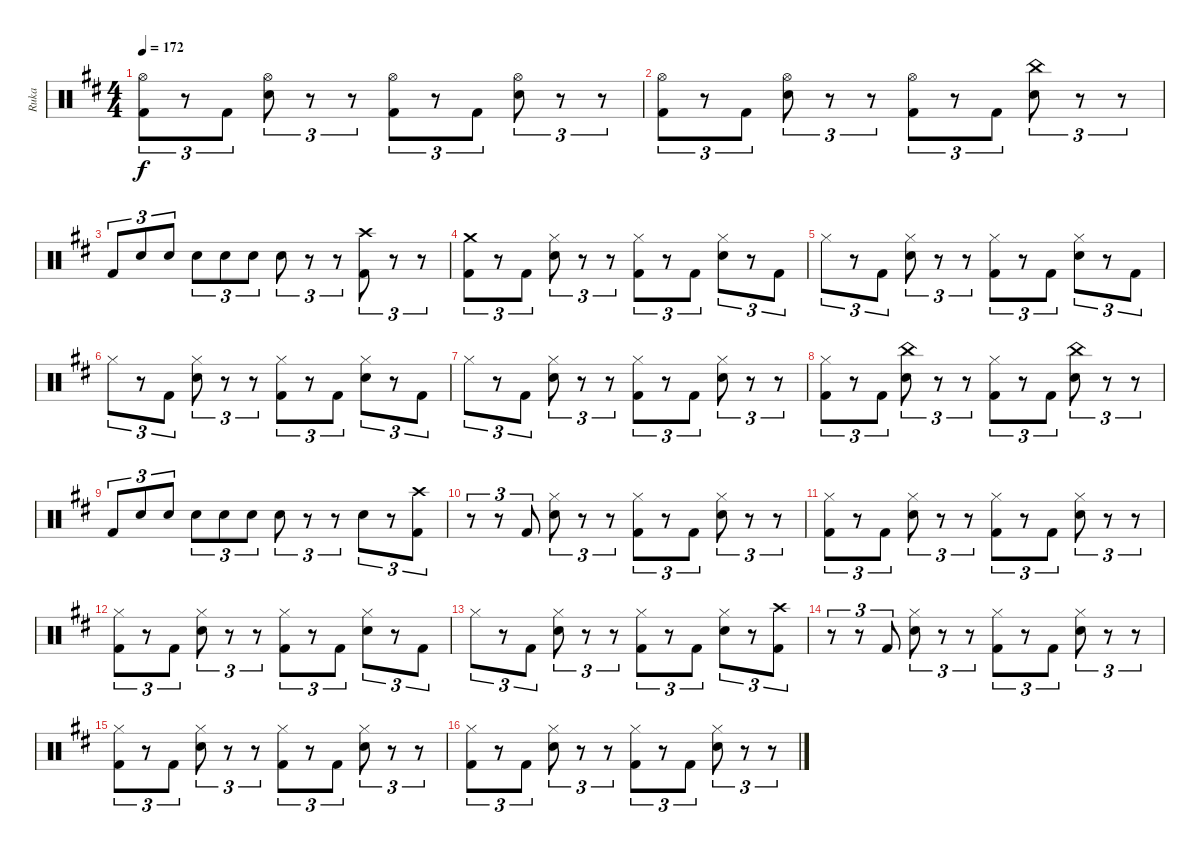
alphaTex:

\track ("Ruka" "Ruka") {instrument percussion}
\staff {score}
\articulation defaults
\ts (4 4)
\tempo 172
\clef neutral
\ks bminor
("Kick (hit) 2" "Hi-Hat (open)").8{tu (3 2) dy f} r.8{tu (3 2)} "Kick (hit) 2".8{tu (3 2)} ("Electric Snare (hit)" "Hi-Hat (open)").8{tu (3 2)} r.8{tu (3 2)} r.8{tu (3 2)} ("Kick (hit) 2" "Hi-Hat (open)").8{tu (3 2)} r.8{tu (3 2)} "Kick (hit) 2".8{tu (3 2)} ("Electric Snare (hit)" "Hi-Hat (open)").8{tu (3 2)} r.8{tu (3 2)} r.8{tu (3 2)} |
("Kick (hit) 2" "Hi-Hat (open)").8{tu (3 2)} r.8{tu (3 2)} "Kick (hit) 2".8{tu (3 2)} ("Electric Snare (hit)" "Hi-Hat (open)").8{tu (3 2)} r.8{tu (3 2)} r.8{tu (3 2)} ("Kick (hit) 2" "Hi-Hat (open)").8{tu (3 2)} r.8{tu (3 2)} "Kick (hit) 2".8{tu (3 2)} ("Electric Snare (hit)" "China (hit)").8{tu (3 2)} r.8{tu (3 2)} r.8{tu (3 2)} |
"Kick (hit) 2".8{tu (3 2)} "Electric Snare (hit)".8{tu (3 2)} "Electric Snare (hit)".8{tu (3 2)} "Electric Snare (hit)".8{tu (3 2)} "Electric Snare (hit)".8{tu (3 2)} "Electric Snare (hit)".8{tu (3 2)} "Electric Snare (hit)".8{tu (3 2)} r.8{tu (3 2)} r.8{tu (3 2)} ("Kick (hit) 2" "Crash high (hit)").8{tu (3 2)} r.8{tu (3 2)} r.8{tu (3 2)} |
("Kick (hit) 2" "Crash medium (hit)").8{tu (3 2)} r.8{tu (3 2)} "Kick (hit) 2".8{tu (3 2)} ("Electric Snare (hit)" "Hi-Hat (closed)").8{tu (3 2)} r.8{tu (3 2)} r.8{tu (3 2)} ("Kick (hit) 2" "Hi-Hat (closed)").8{tu (3 2)} r.8{tu (3 2)} "Kick (hit) 2".8{tu (3 2)} ("Electric Snare (hit)" "Hi-Hat (closed)").8{tu (3 2)} r.8{tu (3 2)} "Kick (hit) 2".8{tu (3 2)} |
"Hi-Hat (closed)".8{tu (3 2)} r.8{tu (3 2)} "Kick (hit) 2".8{tu (3 2)} ("Electric Snare (hit)" "Hi-Hat (closed)").8{tu (3 2)} r.8{tu (3 2)} r.8{tu (3 2)} ("Kick (hit) 2" "Hi-Hat (closed)").8{tu (3 2)} r.8{tu (3 2)} "Kick (hit) 2".8{tu (3 2)} ("Electric Snare (hit)" "Hi-Hat (closed)").8{tu (3 2)} r.8{tu (3 2)} "Kick (hit) 2".8{tu (3 2)} |
"Hi-Hat (closed)".8{tu (3 2)} r.8{tu (3 2)} "Kick (hit) 2".8{tu (3 2)} ("Electric Snare (hit)" "Hi-Hat (closed)").8{tu (3 2)} r.8{tu (3 2)} r.8{tu (3 2)} ("Kick (hit) 2" "Hi-Hat (closed)").8{tu (3 2)} r.8{tu (3 2)} "Kick (hit) 2".8{tu (3 2)} ("Electric Snare (hit)" "Hi-Hat (closed)").8{tu (3 2)} r.8{tu (3 2)} "Kick (hit) 2".8{tu (3 2)} |
"Hi-Hat (closed)".8{tu (3 2)} r.8{tu (3 2)} "Kick (hit) 2".8{tu (3 2)} ("Electric Snare (hit)" "Hi-Hat (closed)").8{tu (3 2)} r.8{tu (3 2)} r.8{tu (3 2)} ("Kick (hit) 2" "Hi-Hat (closed)").8{tu (3 2)} r.8{tu (3 2)} "Kick (hit) 2".8{tu (3 2)} ("Electric Snare (hit)" "Hi-Hat (closed)").8{tu (3 2)} r.8{tu (3 2)} r.8{tu (3 2)} |
("Kick (hit) 2" "Hi-Hat (closed)").8{tu (3 2)} r.8{tu (3 2)} "Kick (hit) 2".8{tu (3 2)} ("Electric Snare (hit)" "China (hit)").8{tu (3 2)} r.8{tu (3 2)} r.8{tu (3 2)} ("Kick (hit) 2" "Hi-Hat (closed)").8{tu (3 2)} r.8{tu (3 2)} "Kick (hit) 2".8{tu (3 2)} ("Electric Snare (hit)" "China (hit)").8{tu (3 2)} r.8{tu (3 2)} r.8{tu (3 2)} |
"Kick (hit) 2".8{tu (3 2)} "Electric Snare (hit)".8{tu (3 2)} "Electric Snare (hit)".8{tu (3 2)} "Electric Snare (hit)".8{tu (3 2)} "Electric Snare (hit)".8{tu (3 2)} "Electric Snare (hit)".8{tu (3 2)} "Electric Snare (hit)".8{tu (3 2)} r.8{tu (3 2)} r.8{tu (3 2)} "Electric Snare (hit)".8{tu (3 2)} r.8{tu (3 2)} ("Kick (hit) 2" "Crash high (hit)").8{tu (3 2)} |
r.8{tu (3 2)} r.8{tu (3 2)} "Kick (hit) 2".8{tu (3 2)} ("Electric Snare (hit)" "Hi-Hat (closed)").8{tu (3 2)} r.8{tu (3 2)} r.8{tu (3 2)} ("Kick (hit) 2" "Hi-Hat (closed)").8{tu (3 2)} r.8{tu (3 2)} "Kick (hit) 2".8{tu (3 2)} ("Electric Snare (hit)" "Hi-Hat (closed)").8{tu (3 2)} r.8{tu (3 2)} r.8{tu (3 2)} |
("Kick (hit) 2" "Hi-Hat (closed)").8{tu (3 2)} r.8{tu (3 2)} "Kick (hit) 2".8{tu (3 2)} ("Electric Snare (hit)" "Hi-Hat (closed)").8{tu (3 2)} r.8{tu (3 2)} r.8{tu (3 2)} ("Kick (hit) 2" "Hi-Hat (closed)").8{tu (3 2)} r.8{tu (3 2)} "Kick (hit) 2".8{tu (3 2)} ("Electric Snare (hit)" "Hi-Hat (closed)").8{tu (3 2)} r.8{tu (3 2)} r.8{tu (3 2)} |
("Kick (hit) 2" "Hi-Hat (closed)").8{tu (3 2)} r.8{tu (3 2)} "Kick (hit) 2".8{tu (3 2)} ("Electric Snare (hit)" "Hi-Hat (closed)").8{tu (3 2)} r.8{tu (3 2)} r.8{tu (3 2)} ("Kick (hit) 2" "Hi-Hat (closed)").8{tu (3 2)} r.8{tu (3 2)} "Kick (hit) 2".8{tu (3 2)} ("Electric Snare (hit)" "Hi-Hat (closed)").8{tu (3 2)} r.8{tu (3 2)} "Kick (hit) 2".8{tu (3 2)} |
"Hi-Hat (closed)".8{tu (3 2)} r.8{tu (3 2)} "Kick (hit) 2".8{tu (3 2)} ("Electric Snare (hit)" "Hi-Hat (closed)").8{tu (3 2)} r.8{tu (3 2)} r.8{tu (3 2)} ("Kick (hit) 2" "Hi-Hat (closed)").8{tu (3 2)} r.8{tu (3 2)} "Kick (hit) 2".8{tu (3 2)} ("Electric Snare (hit)" "Hi-Hat (closed)").8{tu (3 2)} r.8{tu (3 2)} ("Kick (hit) 2" "Crash high (hit)").8{tu (3 2)} |
r.8{tu (3 2)} r.8{tu (3 2)} "Kick (hit) 2".8{tu (3 2)} ("Electric Snare (hit)" "Hi-Hat (closed)").8{tu (3 2)} r.8{tu (3 2)} r.8{tu (3 2)} ("Kick (hit) 2" "Hi-Hat (closed)").8{tu (3 2)} r.8{tu (3 2)} "Kick (hit) 2".8{tu (3 2)} ("Electric Snare (hit)" "Hi-Hat (closed)").8{tu (3 2)} r.8{tu (3 2)} r.8{tu (3 2)} |
("Kick (hit) 2" "Hi-Hat (closed)").8{tu (3 2)} r.8{tu (3 2)} "Kick (hit) 2".8{tu (3 2)} ("Electric Snare (hit)" "Hi-Hat (closed)").8{tu (3 2)} r.8{tu (3 2)} r.8{tu (3 2)} ("Kick (hit) 2" "Hi-Hat (closed)").8{tu (3 2)} r.8{tu (3 2)} "Kick (hit) 2".8{tu (3 2)} ("Electric Snare (hit)" "Hi-Hat (closed)").8{tu (3 2)} r.8{tu (3 2)} r.8{tu (3 2)} |
("Kick (hit) 2" "Hi-Hat (closed)").8{tu (3 2)} r.8{tu (3 2)} "Kick (hit) 2".8{tu (3 2)} ("Electric Snare (hit)" "Hi-Hat (closed)").8{tu (3 2)} r.8{tu (3 2)} r.8{tu (3 2)} ("Kick (hit) 2" "Hi-Hat (closed)").8{tu (3 2)} r.8{tu (3 2)} "Kick (hit) 2".8{tu (3 2)} ("Electric Snare (hit)" "Hi-Hat (closed)").8{tu (3 2)} r.8{tu (3 2)} r.8{tu (3 2)}
